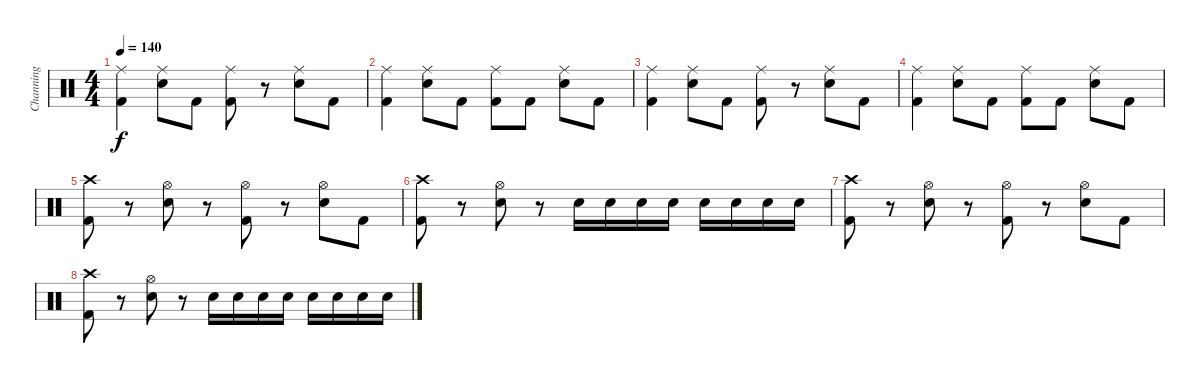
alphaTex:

\track ("Channing" "Channing") {instrument percussion}
\staff {score}
\articulation defaults
\ts (4 4)
\tempo 140
\clef neutral
\ks c
("Ride (middle)" "Kick (hit) 2").4{dy f} ("Ride (middle)" "Snare (hit) 2").8 "Kick (hit) 2".8 ("Ride (middle)" "Kick (hit) 2").8 r.8 ("Ride (middle)" "Snare (hit) 2").8 "Kick (hit) 2".8 |
("Ride (middle)" "Kick (hit) 2").4 ("Ride (middle)" "Snare (hit) 2").8 "Kick (hit) 2".8 ("Ride (middle)" "Kick (hit) 2").8 "Kick (hit) 2".8 ("Ride (middle)" "Snare (hit) 2").8 "Kick (hit) 2".8 |
("Ride (middle)" "Kick (hit) 2").4 ("Ride (middle)" "Snare (hit) 2").8 "Kick (hit) 2".8 ("Ride (middle)" "Kick (hit) 2").8 r.8 ("Ride (middle)" "Snare (hit) 2").8 "Kick (hit) 2".8 |
("Ride (middle)" "Kick (hit) 2").4 ("Ride (middle)" "Snare (hit) 2").8 "Kick (hit) 2".8 ("Ride (middle)" "Kick (hit) 2").8 "Kick (hit) 2".8 ("Ride (middle)" "Snare (hit) 2").8 "Kick (hit) 2".8 |
("Crash high (hit)" "Kick (hit) 2").8 r.8 ("Hi-Hat (open)" "Snare (hit) 2").8 r.8 ("Hi-Hat (open)" "Kick (hit) 2").8 r.8 ("Hi-Hat (open)" "Snare (hit) 2").8 "Kick (hit) 2".8 |
("Crash high (hit)" "Kick (hit) 2").8 r.8 ("Hi-Hat (open)" "Snare (hit) 2").8 r.8 "Snare (hit) 2".16 "Snare (hit) 2".16 "Snare (hit) 2".16 "Snare (hit) 2".16 "Snare (hit) 2".16 "Snare (hit) 2".16 "Snare (hit) 2".16 "Snare (hit) 2".16 |
("Crash high (hit)" "Kick (hit) 2").8 r.8 ("Hi-Hat (open)" "Snare (hit) 2").8 r.8 ("Hi-Hat (open)" "Kick (hit) 2").8 r.8 ("Hi-Hat (open)" "Snare (hit) 2").8 "Kick (hit) 2".8 |
("Crash high (hit)" "Kick (hit) 2").8 r.8 ("Hi-Hat (open)" "Snare (hit) 2").8 r.8 "Snare (hit) 2".16 "Snare (hit) 2".16 "Snare (hit) 2".16 "Snare (hit) 2".16 "Snare (hit) 2".16 "Snare (hit) 2".16 "Snare (hit) 2".16 "Snare (hit) 2".16
